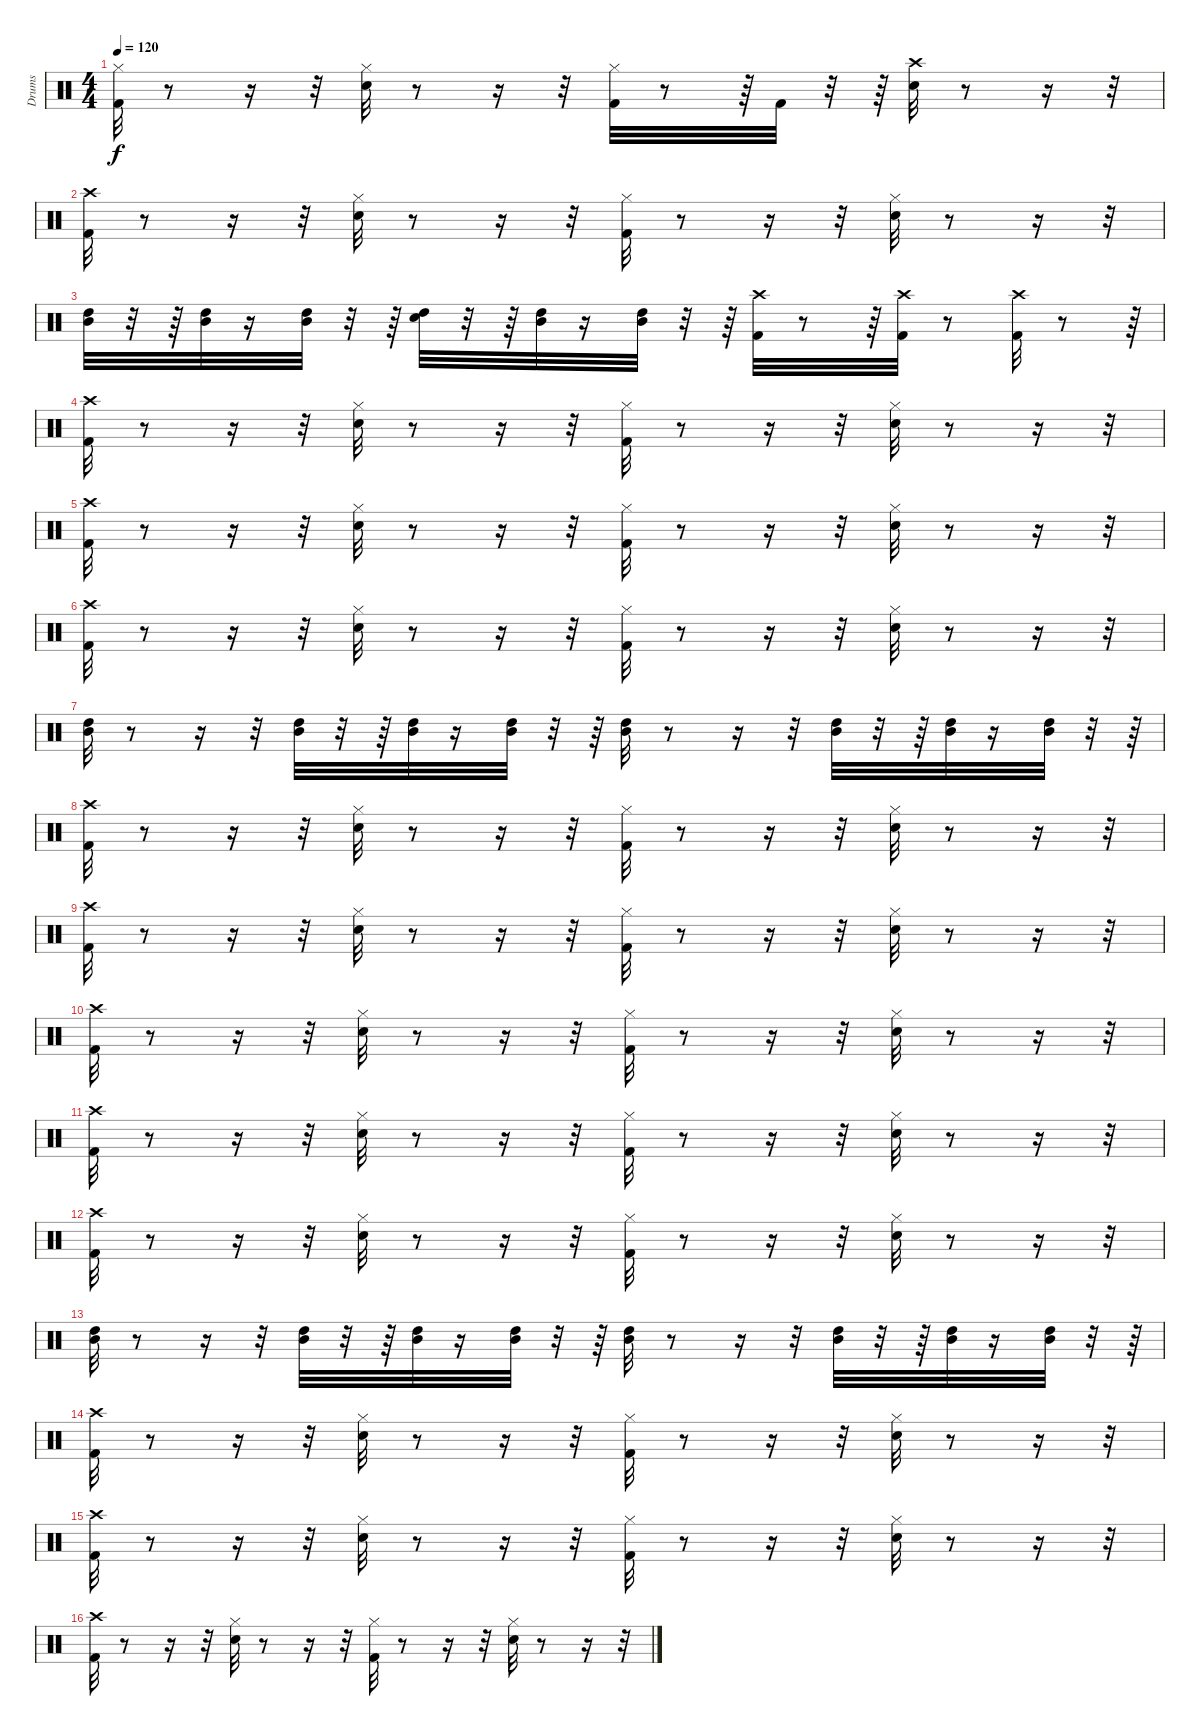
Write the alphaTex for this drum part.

\track ("Drums" "Drums") {instrument percussion}
\staff {score}
\articulation defaults
\ts (4 4)
\tempo 120
\clef neutral
\ks c
("Kick (hit) 2" "Hi-Hat (closed)").32{dy f} r.8 r.16 r.32 ("Snare (hit) 2" "Hi-Hat (closed)").32 r.8 r.16 r.32 ("Kick (hit) 2" "Hi-Hat (closed)").32 r.8 r.64 "Kick (hit) 2".32 r.32 r.64 ("Snare (hit) 2" "Crash high (hit)").32 r.8 r.16 r.32 |
("Crash high (hit)" "Kick (hit) 2").32 r.8 r.16 r.32 ("Snare (hit) 2" "Hi-Hat (closed)").32 r.8 r.16 r.32 ("Hi-Hat (closed)" "Kick (hit) 2").32 r.8 r.16 r.32 ("Snare (hit) 2" "Hi-Hat (closed)").32 r.8 r.16 r.32 |
("High Tom (hit)" "Mid Tom (hit)").32 r.32 r.64 ("High Tom (hit)" "Mid Tom (hit)").32 r.16 ("High Tom (hit)" "Mid Tom (hit)").32 r.32 r.64 ("Snare (hit) 2" "High Tom (hit)").32 r.32 r.64 ("High Tom (hit)" "Mid Tom (hit)").32 r.16 ("High Tom (hit)" "Mid Tom (hit)").32 r.32 r.64 ("Kick (hit) 2" "Crash high (hit)").32 r.8 r.64 ("Kick (hit) 2" "Crash high (hit)").32 r.8 ("Kick (hit) 2" "Crash high (hit)").32 r.8 r.64 |
("Kick (hit) 2" "Crash high (hit)").32 r.8 r.16 r.32 ("Snare (hit) 2" "Hi-Hat (closed)").32 r.8 r.16 r.32 ("Kick (hit) 2" "Hi-Hat (closed)").32 r.8 r.16 r.32 ("Snare (hit) 2" "Hi-Hat (closed)").32 r.8 r.16 r.32 |
("Kick (hit) 2" "Crash high (hit)").32 r.8 r.16 r.32 ("Snare (hit) 2" "Hi-Hat (closed)").32 r.8 r.16 r.32 ("Kick (hit) 2" "Hi-Hat (closed)").32 r.8 r.16 r.32 ("Snare (hit) 2" "Hi-Hat (closed)").32 r.8 r.16 r.32 |
("Kick (hit) 2" "Crash high (hit)").32 r.8 r.16 r.32 ("Snare (hit) 2" "Hi-Hat (closed)").32 r.8 r.16 r.32 ("Kick (hit) 2" "Hi-Hat (closed)").32 r.8 r.16 r.32 ("Snare (hit) 2" "Hi-Hat (closed)").32 r.8 r.16 r.32 |
("Mid Tom (hit)" "High Tom (hit)").32 r.8 r.16 r.32 ("Mid Tom (hit)" "High Tom (hit)").32 r.32 r.64 ("High Tom (hit)" "Mid Tom (hit)").32 r.16 ("Mid Tom (hit)" "High Tom (hit)").32 r.32 r.64 ("Mid Tom (hit)" "High Tom (hit)").32 r.8 r.16 r.32 ("Mid Tom (hit)" "High Tom (hit)").32 r.32 r.64 ("High Tom (hit)" "Mid Tom (hit)").32 r.16 ("Mid Tom (hit)" "High Tom (hit)").32 r.32 r.64 |
("Crash high (hit)" "Kick (hit) 2").32 r.8 r.16 r.32 ("Hi-Hat (closed)" "Snare (hit) 2").32 r.8 r.16 r.32 ("Hi-Hat (closed)" "Kick (hit) 2").32 r.8 r.16 r.32 ("Hi-Hat (closed)" "Snare (hit) 2").32 r.8 r.16 r.32 |
("Kick (hit) 2" "Crash high (hit)").32 r.8 r.16 r.32 ("Snare (hit) 2" "Hi-Hat (closed)").32 r.8 r.16 r.32 ("Kick (hit) 2" "Hi-Hat (closed)").32 r.8 r.16 r.32 ("Snare (hit) 2" "Hi-Hat (closed)").32 r.8 r.16 r.32 |
("Kick (hit) 2" "Crash high (hit)").32 r.8 r.16 r.32 ("Snare (hit) 2" "Hi-Hat (closed)").32 r.8 r.16 r.32 ("Kick (hit) 2" "Hi-Hat (closed)").32 r.8 r.16 r.32 ("Snare (hit) 2" "Hi-Hat (closed)").32 r.8 r.16 r.32 |
("Kick (hit) 2" "Crash high (hit)").32 r.8 r.16 r.32 ("Snare (hit) 2" "Hi-Hat (closed)").32 r.8 r.16 r.32 ("Kick (hit) 2" "Hi-Hat (closed)").32 r.8 r.16 r.32 ("Snare (hit) 2" "Hi-Hat (closed)").32 r.8 r.16 r.32 |
("Kick (hit) 2" "Crash high (hit)").32 r.8 r.16 r.32 ("Snare (hit) 2" "Hi-Hat (closed)").32 r.8 r.16 r.32 ("Kick (hit) 2" "Hi-Hat (closed)").32 r.8 r.16 r.32 ("Snare (hit) 2" "Hi-Hat (closed)").32 r.8 r.16 r.32 |
("Mid Tom (hit)" "High Tom (hit)").32 r.8 r.16 r.32 ("Mid Tom (hit)" "High Tom (hit)").32 r.32 r.64 ("High Tom (hit)" "Mid Tom (hit)").32 r.16 ("Mid Tom (hit)" "High Tom (hit)").32 r.32 r.64 ("Mid Tom (hit)" "High Tom (hit)").32 r.8 r.16 r.32 ("Mid Tom (hit)" "High Tom (hit)").32 r.32 r.64 ("High Tom (hit)" "Mid Tom (hit)").32 r.16 ("Mid Tom (hit)" "High Tom (hit)").32 r.32 r.64 |
("Crash high (hit)" "Kick (hit) 2").32 r.8 r.16 r.32 ("Hi-Hat (closed)" "Snare (hit) 2").32 r.8 r.16 r.32 ("Hi-Hat (closed)" "Kick (hit) 2").32 r.8 r.16 r.32 ("Hi-Hat (closed)" "Snare (hit) 2").32 r.8 r.16 r.32 |
("Kick (hit) 2" "Crash high (hit)").32 r.8 r.16 r.32 ("Snare (hit) 2" "Hi-Hat (closed)").32 r.8 r.16 r.32 ("Kick (hit) 2" "Hi-Hat (closed)").32 r.8 r.16 r.32 ("Snare (hit) 2" "Hi-Hat (closed)").32 r.8 r.16 r.32 |
("Kick (hit) 2" "Crash high (hit)").32 r.8 r.16 r.32 ("Snare (hit) 2" "Hi-Hat (closed)").32 r.8 r.16 r.32 ("Kick (hit) 2" "Hi-Hat (closed)").32 r.8 r.16 r.32 ("Snare (hit) 2" "Hi-Hat (closed)").32 r.8 r.16 r.32
